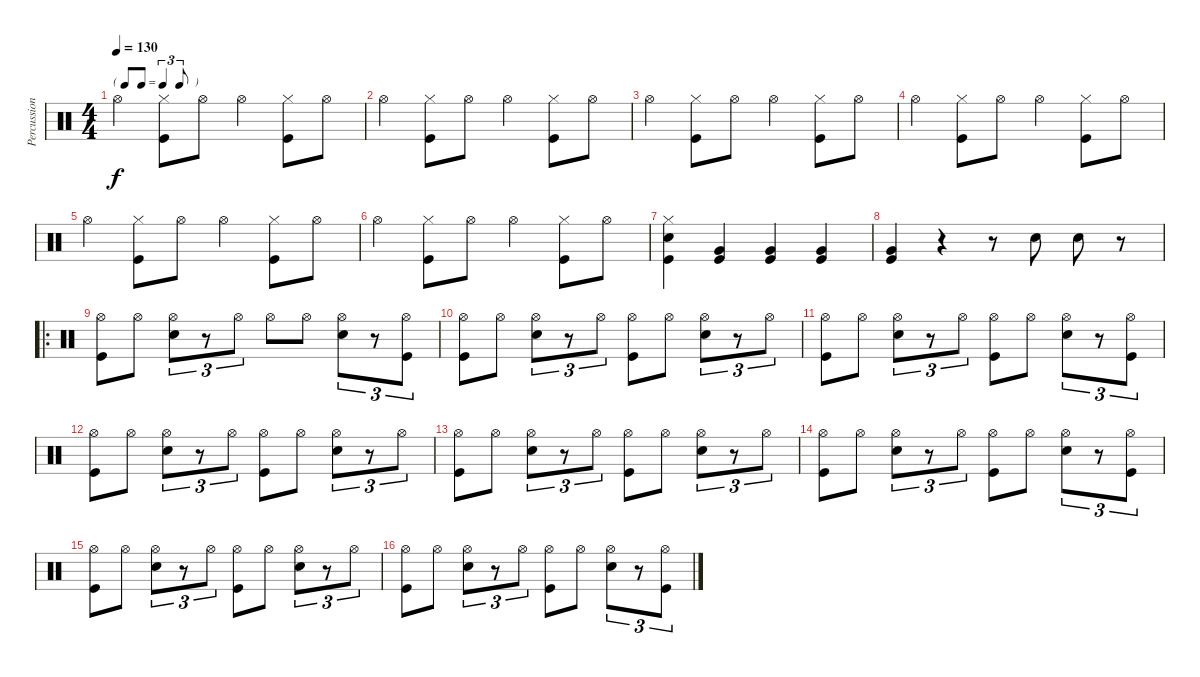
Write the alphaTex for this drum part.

\track ("Percussion" "Percussion") {instrument percussion}
\staff {score}
\articulation defaults
\ts (4 4)
\tf triplet8th
\tempo 130
\clef neutral
\ks c "Hi-Hat (open)".4{dy f}
("Hi-Hat (closed)" "Kick (hit)").8 "Hi-Hat (open)".8 "Hi-Hat (open)".4 ("Hi-Hat (closed)" "Kick (hit)").8 "Hi-Hat (open)".8 |
"Hi-Hat (open)".4 ("Hi-Hat (closed)" "Kick (hit)").8 "Hi-Hat (open)".8 "Hi-Hat (open)".4 ("Hi-Hat (closed)" "Kick (hit)").8 "Hi-Hat (open)".8 |
"Hi-Hat (open)".4 ("Hi-Hat (closed)" "Kick (hit)").8 "Hi-Hat (open)".8 "Hi-Hat (open)".4 ("Hi-Hat (closed)" "Kick (hit)").8 "Hi-Hat (open)".8 |
"Hi-Hat (open)".4 ("Hi-Hat (closed)" "Kick (hit)").8 "Hi-Hat (open)".8 "Hi-Hat (open)".4 ("Hi-Hat (closed)" "Kick (hit)").8 "Hi-Hat (open)".8 |
"Hi-Hat (open)".4 ("Hi-Hat (closed)" "Kick (hit)").8 "Hi-Hat (open)".8 "Hi-Hat (open)".4 ("Hi-Hat (closed)" "Kick (hit)").8 "Hi-Hat (open)".8 |
"Hi-Hat (open)".4 ("Hi-Hat (closed)" "Kick (hit)").8 "Hi-Hat (open)".8 "Hi-Hat (open)".4 ("Hi-Hat (closed)" "Kick (hit)").8 "Hi-Hat (open)".8 |
("Hi-Hat (closed)" "Snare (hit) 2" "Kick (hit)").4 ("Very Low Tom (hit)" "Kick (hit)").4 ("Very Low Tom (hit)" "Kick (hit)").4 ("Very Low Tom (hit)" "Kick (hit)").4 |
("Very Low Tom (hit)" "Kick (hit)").4 r.4 r.8 "Snare (hit) 2".8 "Snare (hit) 2".8 r.8 |
\ro
("Hi-Hat (open)" "Kick (hit)").8 "Hi-Hat (open)".8 ("Hi-Hat (open)" "Snare (hit) 2").8{tu (3 2)} r.8{tu (3 2)} "Hi-Hat (open)".8{tu (3 2)} "Hi-Hat (open)".8 "Hi-Hat (open)".8 ("Hi-Hat (open)" "Snare (hit) 2").8{tu (3 2)} r.8{tu (3 2)} ("Hi-Hat (open)" "Kick (hit)").8{tu (3 2)} |
("Hi-Hat (open)" "Kick (hit)").8 "Hi-Hat (open)".8 ("Hi-Hat (open)" "Snare (hit) 2").8{tu (3 2)} r.8{tu (3 2)} "Hi-Hat (open)".8{tu (3 2)} ("Hi-Hat (open)" "Kick (hit)").8 "Hi-Hat (open)".8 ("Hi-Hat (open)" "Snare (hit) 2").8{tu (3 2)} r.8{tu (3 2)} "Hi-Hat (open)".8{tu (3 2)} |
("Hi-Hat (open)" "Kick (hit)").8 "Hi-Hat (open)".8 ("Hi-Hat (open)" "Snare (hit) 2").8{tu (3 2)} r.8{tu (3 2)} "Hi-Hat (open)".8{tu (3 2)} ("Hi-Hat (open)" "Kick (hit)").8 "Hi-Hat (open)".8 ("Hi-Hat (open)" "Snare (hit) 2").8{tu (3 2)} r.8{tu (3 2)} ("Hi-Hat (open)" "Kick (hit)").8{tu (3 2)} |
("Hi-Hat (open)" "Kick (hit)").8 "Hi-Hat (open)".8 ("Hi-Hat (open)" "Snare (hit) 2").8{tu (3 2)} r.8{tu (3 2)} "Hi-Hat (open)".8{tu (3 2)} ("Hi-Hat (open)" "Kick (hit)").8 "Hi-Hat (open)".8 ("Hi-Hat (open)" "Snare (hit) 2").8{tu (3 2)} r.8{tu (3 2)} "Hi-Hat (open)".8{tu (3 2)} |
("Hi-Hat (open)" "Kick (hit)").8 "Hi-Hat (open)".8 ("Hi-Hat (open)" "Snare (hit) 2").8{tu (3 2)} r.8{tu (3 2)} "Hi-Hat (open)".8{tu (3 2)} ("Hi-Hat (open)" "Kick (hit)").8 "Hi-Hat (open)".8 ("Hi-Hat (open)" "Snare (hit) 2").8{tu (3 2)} r.8{tu (3 2)} "Hi-Hat (open)".8{tu (3 2)} |
("Hi-Hat (open)" "Kick (hit)").8 "Hi-Hat (open)".8 ("Hi-Hat (open)" "Snare (hit) 2").8{tu (3 2)} r.8{tu (3 2)} "Hi-Hat (open)".8{tu (3 2)} ("Hi-Hat (open)" "Kick (hit)").8 "Hi-Hat (open)".8 ("Hi-Hat (open)" "Snare (hit) 2").8{tu (3 2)} r.8{tu (3 2)} ("Hi-Hat (open)" "Kick (hit)").8{tu (3 2)} |
("Hi-Hat (open)" "Kick (hit)").8 "Hi-Hat (open)".8 ("Hi-Hat (open)" "Snare (hit) 2").8{tu (3 2)} r.8{tu (3 2)} "Hi-Hat (open)".8{tu (3 2)} ("Hi-Hat (open)" "Kick (hit)").8 "Hi-Hat (open)".8 ("Hi-Hat (open)" "Snare (hit) 2").8{tu (3 2)} r.8{tu (3 2)} "Hi-Hat (open)".8{tu (3 2)} |
("Hi-Hat (open)" "Kick (hit)").8 "Hi-Hat (open)".8 ("Hi-Hat (open)" "Snare (hit) 2").8{tu (3 2)} r.8{tu (3 2)} "Hi-Hat (open)".8{tu (3 2)} ("Hi-Hat (open)" "Kick (hit)").8 "Hi-Hat (open)".8 ("Hi-Hat (open)" "Snare (hit) 2").8{tu (3 2)} r.8{tu (3 2)} ("Hi-Hat (open)" "Kick (hit)").8{tu (3 2)}
